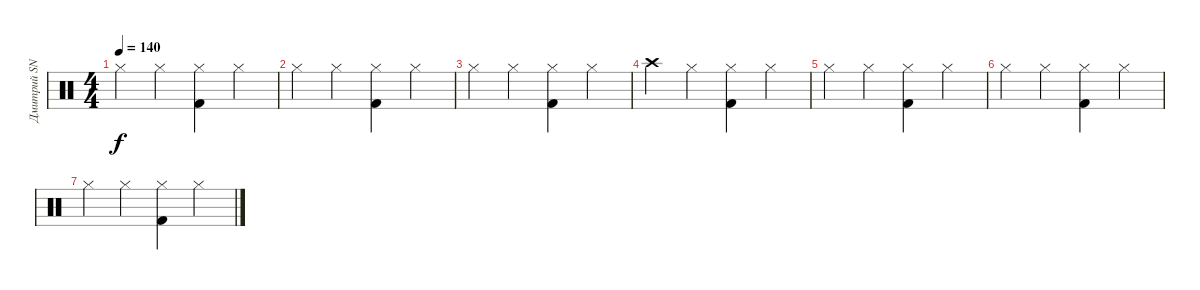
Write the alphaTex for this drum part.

\track ("Дмитрий SNAKE Хакимов" "Дмитрий SN") {instrument percussion}
\staff {score}
\articulation defaults
\ts (4 4)
\tempo 140
\clef neutral
\ks c "Hi-Hat (closed)".4{dy f} "Hi-Hat (closed)".4
("Hi-Hat (closed)" "Kick (hit) 2").4 "Hi-Hat (closed)".4 |
"Hi-Hat (closed)".4 "Hi-Hat (closed)".4 ("Hi-Hat (closed)" "Kick (hit) 2").4 "Hi-Hat (closed)".4 |
"Hi-Hat (closed)".4 "Hi-Hat (closed)".4 ("Hi-Hat (closed)" "Kick (hit) 2").4 "Hi-Hat (closed)".4 |
"Crash high (hit)".4 "Hi-Hat (closed)".4 ("Hi-Hat (closed)" "Kick (hit) 2").4 "Hi-Hat (closed)".4 |
"Hi-Hat (closed)".4 "Hi-Hat (closed)".4 ("Hi-Hat (closed)" "Kick (hit) 2").4 "Hi-Hat (closed)".4 |
"Hi-Hat (closed)".4 "Hi-Hat (closed)".4 ("Hi-Hat (closed)" "Kick (hit) 2").4 "Hi-Hat (closed)".4 |
"Hi-Hat (closed)".4 "Hi-Hat (closed)".4 ("Hi-Hat (closed)" "Kick (hit) 2").4 "Hi-Hat (closed)".4
